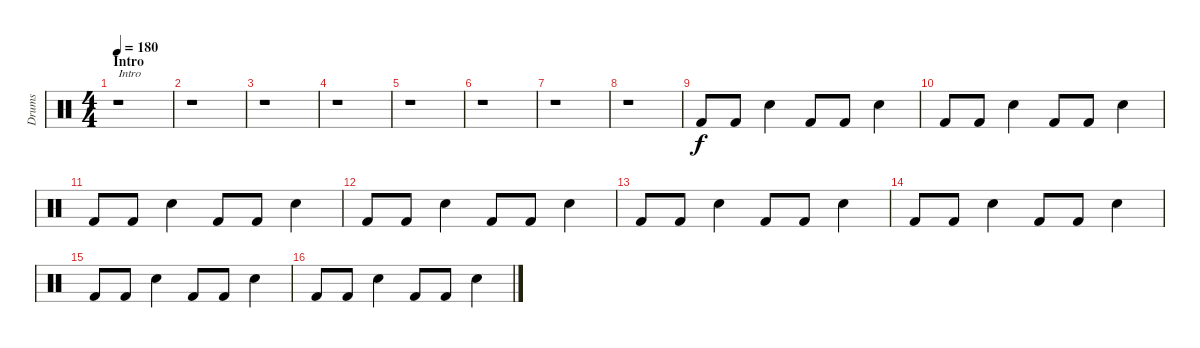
\track ("Drums" "Drums") {instrument percussion}
\staff {score}
\articulation defaults
\ts (4 4)
\section ("" "Intro")
\tempo 180
\clef neutral
\ks c
r.1{txt "Intro" dy f} |
r.1 |
r.1 |
r.1 |
r.1 |
r.1 |
r.1 |
r.1 |
"Kick (hit) 2".8 "Kick (hit) 2".8 "Snare (hit) 2".4 "Kick (hit) 2".8 "Kick (hit) 2".8 "Snare (hit) 2".4 |
"Kick (hit) 2".8 "Kick (hit) 2".8 "Snare (hit) 2".4 "Kick (hit) 2".8 "Kick (hit) 2".8 "Snare (hit) 2".4 |
"Kick (hit) 2".8 "Kick (hit) 2".8 "Snare (hit) 2".4 "Kick (hit) 2".8 "Kick (hit) 2".8 "Snare (hit) 2".4 |
"Kick (hit) 2".8 "Kick (hit) 2".8 "Snare (hit) 2".4 "Kick (hit) 2".8 "Kick (hit) 2".8 "Snare (hit) 2".4 |
"Kick (hit) 2".8 "Kick (hit) 2".8 "Snare (hit) 2".4 "Kick (hit) 2".8 "Kick (hit) 2".8 "Snare (hit) 2".4 |
"Kick (hit) 2".8 "Kick (hit) 2".8 "Snare (hit) 2".4 "Kick (hit) 2".8 "Kick (hit) 2".8 "Snare (hit) 2".4 |
"Kick (hit) 2".8 "Kick (hit) 2".8 "Snare (hit) 2".4 "Kick (hit) 2".8 "Kick (hit) 2".8 "Snare (hit) 2".4 |
"Kick (hit) 2".8 "Kick (hit) 2".8 "Snare (hit) 2".4 "Kick (hit) 2".8 "Kick (hit) 2".8 "Snare (hit) 2".4
